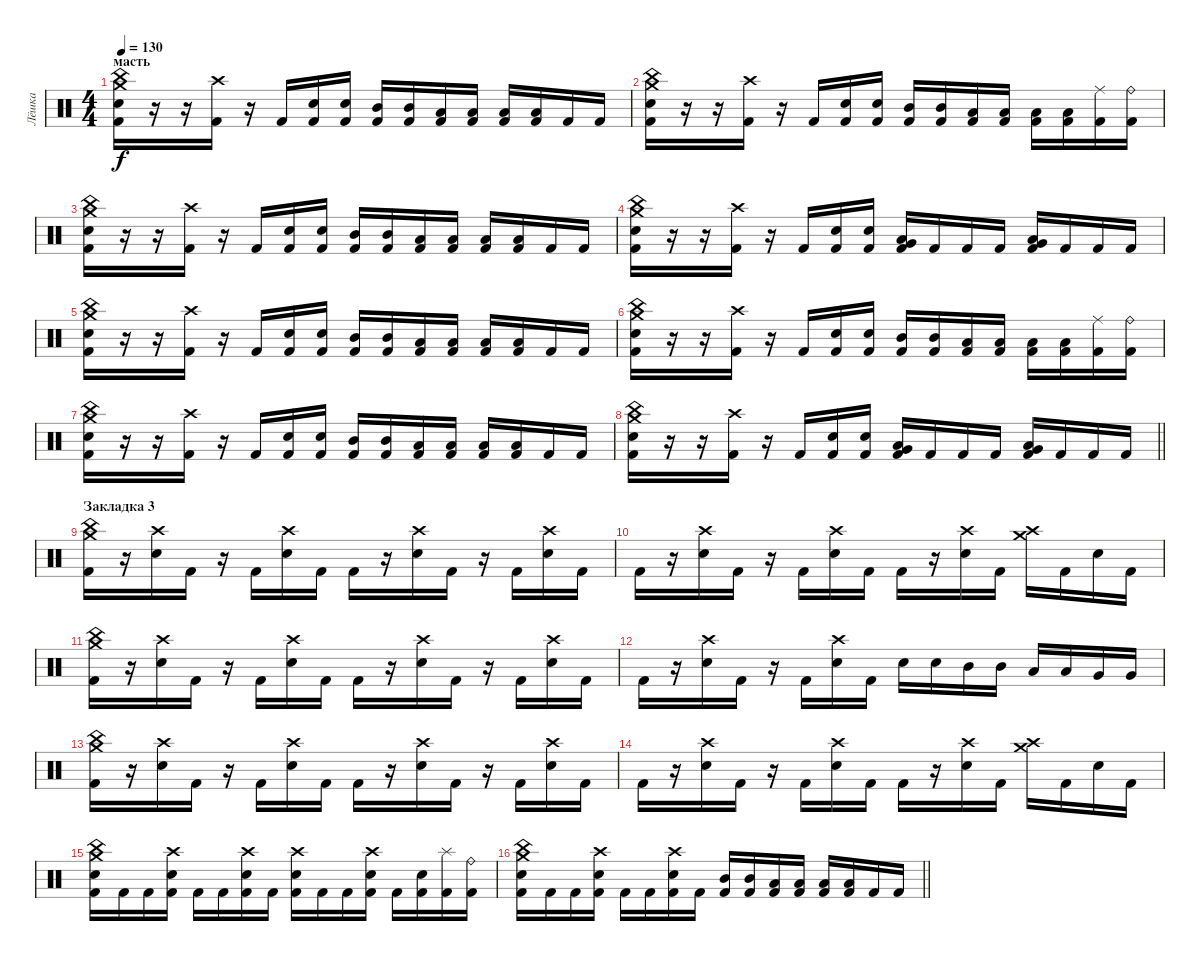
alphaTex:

\track ("Лёшка" "Лёшка") {instrument percussion}
\staff {score}
\articulation defaults
\ts (4 4)
\section ("" "масть")
\tempo 130
\clef neutral
\ks c
("China (hit)" "Crash medium (hit)" "Electric Snare (hit)" "Kick (hit) 2").16{dy f} r.16 r.16 ("Crash high (hit)" "Kick (hit) 2").16 r.16 "Kick (hit) 2".16 ("Electric Snare (hit)" "Kick (hit) 2").16 ("Electric Snare (hit)" "Kick (hit) 2").16 ("Mid Tom (hit)" "Kick (hit) 2").16 ("Mid Tom (hit)" "Kick (hit) 2").16 ("Low Tom (hit)" "Kick (hit) 2").16 ("Low Tom (hit)" "Kick (hit) 2").16 ("Low Tom (hit)" "Kick (hit) 2").16 ("Low Tom (hit)" "Kick (hit) 2").16 "Kick (hit) 2".16 "Kick (hit) 2".16 |
("China (hit)" "Crash medium (hit)" "Electric Snare (hit)" "Kick (hit) 2").16 r.16 r.16 ("Crash high (hit)" "Kick (hit) 2").16 r.16 "Kick (hit) 2".16 ("Electric Snare (hit)" "Kick (hit) 2").16 ("Electric Snare (hit)" "Kick (hit) 2").16 ("Mid Tom (hit)" "Kick (hit) 2").16 ("Mid Tom (hit)" "Kick (hit) 2").16 ("Low Tom (hit)" "Kick (hit) 2").16 ("Low Tom (hit)" "Kick (hit) 2").16 ("Low Tom (hit)" "Kick (hit) 2").16 ("Low Tom (hit)" "Kick (hit) 2").16 ("Ride (middle)" "Kick (hit) 2").16 ("Ride (bell)" "Kick (hit) 2").16 |
("China (hit)" "Crash medium (hit)" "Electric Snare (hit)" "Kick (hit) 2").16 r.16 r.16 ("Crash high (hit)" "Kick (hit) 2").16 r.16 "Kick (hit) 2".16 ("Electric Snare (hit)" "Kick (hit) 2").16 ("Electric Snare (hit)" "Kick (hit) 2").16 ("Mid Tom (hit)" "Kick (hit) 2").16 ("Mid Tom (hit)" "Kick (hit) 2").16 ("Low Tom (hit)" "Kick (hit) 2").16 ("Low Tom (hit)" "Kick (hit) 2").16 ("Low Tom (hit)" "Kick (hit) 2").16 ("Low Tom (hit)" "Kick (hit) 2").16 "Kick (hit) 2".16 "Kick (hit) 2".16 |
("China (hit)" "Crash medium (hit)" "Electric Snare (hit)" "Kick (hit) 2").16 r.16 r.16 ("Crash high (hit)" "Kick (hit) 2").16 r.16 "Kick (hit) 2".16 ("Electric Snare (hit)" "Kick (hit) 2").16 ("Electric Snare (hit)" "Kick (hit) 2").16 ("Low Tom (hit)" "Very Low Tom (hit)" "Kick (hit) 2").16 "Kick (hit) 2".16 "Kick (hit) 2".16 "Kick (hit) 2".16 ("Very Low Tom (hit)" "Low Tom (hit)" "Kick (hit) 2").16 "Kick (hit) 2".16 "Kick (hit) 2".16 "Kick (hit) 2".16 |
("China (hit)" "Crash medium (hit)" "Electric Snare (hit)" "Kick (hit) 2").16 r.16 r.16 ("Crash high (hit)" "Kick (hit) 2").16 r.16 "Kick (hit) 2".16 ("Electric Snare (hit)" "Kick (hit) 2").16 ("Electric Snare (hit)" "Kick (hit) 2").16 ("Mid Tom (hit)" "Kick (hit) 2").16 ("Mid Tom (hit)" "Kick (hit) 2").16 ("Low Tom (hit)" "Kick (hit) 2").16 ("Low Tom (hit)" "Kick (hit) 2").16 ("Low Tom (hit)" "Kick (hit) 2").16 ("Low Tom (hit)" "Kick (hit) 2").16 "Kick (hit) 2".16 "Kick (hit) 2".16 |
("China (hit)" "Crash medium (hit)" "Electric Snare (hit)" "Kick (hit) 2").16 r.16 r.16 ("Crash high (hit)" "Kick (hit) 2").16 r.16 "Kick (hit) 2".16 ("Electric Snare (hit)" "Kick (hit) 2").16 ("Electric Snare (hit)" "Kick (hit) 2").16 ("Mid Tom (hit)" "Kick (hit) 2").16 ("Mid Tom (hit)" "Kick (hit) 2").16 ("Low Tom (hit)" "Kick (hit) 2").16 ("Low Tom (hit)" "Kick (hit) 2").16 ("Low Tom (hit)" "Kick (hit) 2").16 ("Low Tom (hit)" "Kick (hit) 2").16 ("Ride (middle)" "Kick (hit) 2").16 ("Ride (bell)" "Kick (hit) 2").16 |
("China (hit)" "Crash medium (hit)" "Electric Snare (hit)" "Kick (hit) 2").16 r.16 r.16 ("Crash high (hit)" "Kick (hit) 2").16 r.16 "Kick (hit) 2".16 ("Electric Snare (hit)" "Kick (hit) 2").16 ("Electric Snare (hit)" "Kick (hit) 2").16 ("Mid Tom (hit)" "Kick (hit) 2").16 ("Mid Tom (hit)" "Kick (hit) 2").16 ("Low Tom (hit)" "Kick (hit) 2").16 ("Low Tom (hit)" "Kick (hit) 2").16 ("Low Tom (hit)" "Kick (hit) 2").16 ("Low Tom (hit)" "Kick (hit) 2").16 "Kick (hit) 2".16 "Kick (hit) 2".16 |
\barLineRight lightlight
("China (hit)" "Crash medium (hit)" "Electric Snare (hit)" "Kick (hit) 2").16 r.16 r.16 ("Crash high (hit)" "Kick (hit) 2").16 r.16 "Kick (hit) 2".16 ("Electric Snare (hit)" "Kick (hit) 2").16 ("Electric Snare (hit)" "Kick (hit) 2").16 ("Low Tom (hit)" "Very Low Tom (hit)" "Kick (hit) 2").16 "Kick (hit) 2".16 "Kick (hit) 2".16 "Kick (hit) 2".16 ("Very Low Tom (hit)" "Low Tom (hit)" "Kick (hit) 2").16 "Kick (hit) 2".16 "Kick (hit) 2".16 "Kick (hit) 2".16 |
\section ("" "Закладка 3")
("China (hit)" "Crash medium (hit)" "Kick (hit) 2").16 r.16 ("Crash high (hit)" "Electric Snare (hit)").16 "Kick (hit) 2".16 r.16 "Kick (hit) 2".16 ("Crash high (hit)" "Electric Snare (hit)").16 "Kick (hit) 2".16 "Kick (hit) 2".16 r.16 ("Crash high (hit)" "Electric Snare (hit)").16 "Kick (hit) 2".16 r.16 "Kick (hit) 2".16 ("Crash high (hit)" "Electric Snare (hit)").16 "Kick (hit) 2".16 |
"Kick (hit) 2".16 r.16 ("Crash high (hit)" "Electric Snare (hit)").16 "Kick (hit) 2".16 r.16 "Kick (hit) 2".16 ("Crash high (hit)" "Electric Snare (hit)").16 "Kick (hit) 2".16 "Kick (hit) 2".16 r.16 ("Crash high (hit)" "Electric Snare (hit)").16 "Kick (hit) 2".16 ("Crash medium (hit)" "Crash high (hit)").16 "Kick (hit) 2".16 "Electric Snare (hit)".16 "Kick (hit) 2".16 |
("China (hit)" "Crash medium (hit)" "Kick (hit) 2").16 r.16 ("Crash high (hit)" "Electric Snare (hit)").16 "Kick (hit) 2".16 r.16 "Kick (hit) 2".16 ("Crash high (hit)" "Electric Snare (hit)").16 "Kick (hit) 2".16 "Kick (hit) 2".16 r.16 ("Crash high (hit)" "Electric Snare (hit)").16 "Kick (hit) 2".16 r.16 "Kick (hit) 2".16 ("Crash high (hit)" "Electric Snare (hit)").16 "Kick (hit) 2".16 |
"Kick (hit) 2".16 r.16 ("Crash high (hit)" "Electric Snare (hit)").16 "Kick (hit) 2".16 r.16 "Kick (hit) 2".16 ("Crash high (hit)" "Electric Snare (hit)").16 "Kick (hit) 2".16 "Electric Snare (hit)".16 "Electric Snare (hit)".16 "Mid Tom (hit)".16 "Mid Tom (hit)".16 "Low Tom (hit)".16 "Low Tom (hit)".16 "Very Low Tom (hit)".16 "Very Low Tom (hit)".16 |
("China (hit)" "Crash medium (hit)" "Kick (hit) 2").16 r.16 ("Crash high (hit)" "Electric Snare (hit)").16 "Kick (hit) 2".16 r.16 "Kick (hit) 2".16 ("Crash high (hit)" "Electric Snare (hit)").16 "Kick (hit) 2".16 "Kick (hit) 2".16 r.16 ("Crash high (hit)" "Electric Snare (hit)").16 "Kick (hit) 2".16 r.16 "Kick (hit) 2".16 ("Crash high (hit)" "Electric Snare (hit)").16 "Kick (hit) 2".16 |
"Kick (hit) 2".16 r.16 ("Crash high (hit)" "Electric Snare (hit)").16 "Kick (hit) 2".16 r.16 "Kick (hit) 2".16 ("Crash high (hit)" "Electric Snare (hit)").16 "Kick (hit) 2".16 "Kick (hit) 2".16 r.16 ("Crash high (hit)" "Electric Snare (hit)").16 "Kick (hit) 2".16 ("Crash medium (hit)" "Crash high (hit)").16 "Kick (hit) 2".16 "Electric Snare (hit)".16 "Kick (hit) 2".16 |
("China (hit)" "Crash medium (hit)" "Electric Snare (hit)" "Kick (hit) 2").16 "Kick (hit) 2".16 "Kick (hit) 2".16 ("Crash high (hit)" "Electric Snare (hit)" "Kick (hit) 2").16 "Kick (hit) 2".16 "Kick (hit) 2".16 ("Crash high (hit)" "Electric Snare (hit)" "Kick (hit) 2").16 "Kick (hit) 2".16 ("Crash high (hit)" "Electric Snare (hit)" "Kick (hit) 2").16 "Kick (hit) 2".16 "Kick (hit) 2".16 ("Crash high (hit)" "Electric Snare (hit)" "Kick (hit) 2").16 "Kick (hit) 2".16 ("Electric Snare (hit)" "Kick (hit) 2").16 ("Splash (hit)" "Kick (hit) 2").16 ("Ride (bell)" "Kick (hit) 2").16 |
\barLineRight lightlight
("China (hit)" "Crash medium (hit)" "Electric Snare (hit)" "Kick (hit) 2").16 "Kick (hit) 2".16 "Kick (hit) 2".16 ("Crash high (hit)" "Electric Snare (hit)" "Kick (hit) 2").16 "Kick (hit) 2".16 "Kick (hit) 2".16 ("Crash high (hit)" "Electric Snare (hit)" "Kick (hit) 2").16 "Kick (hit) 2".16 ("Mid Tom (hit)" "Kick (hit) 2").16 ("Mid Tom (hit)" "Kick (hit) 2").16 ("Low Tom (hit)" "Kick (hit) 2").16 ("Low Tom (hit)" "Kick (hit) 2").16 ("Low Tom (hit)" "Kick (hit) 2").16 ("Low Tom (hit)" "Kick (hit) 2").16 "Kick (hit) 2".16 "Kick (hit) 2".16
